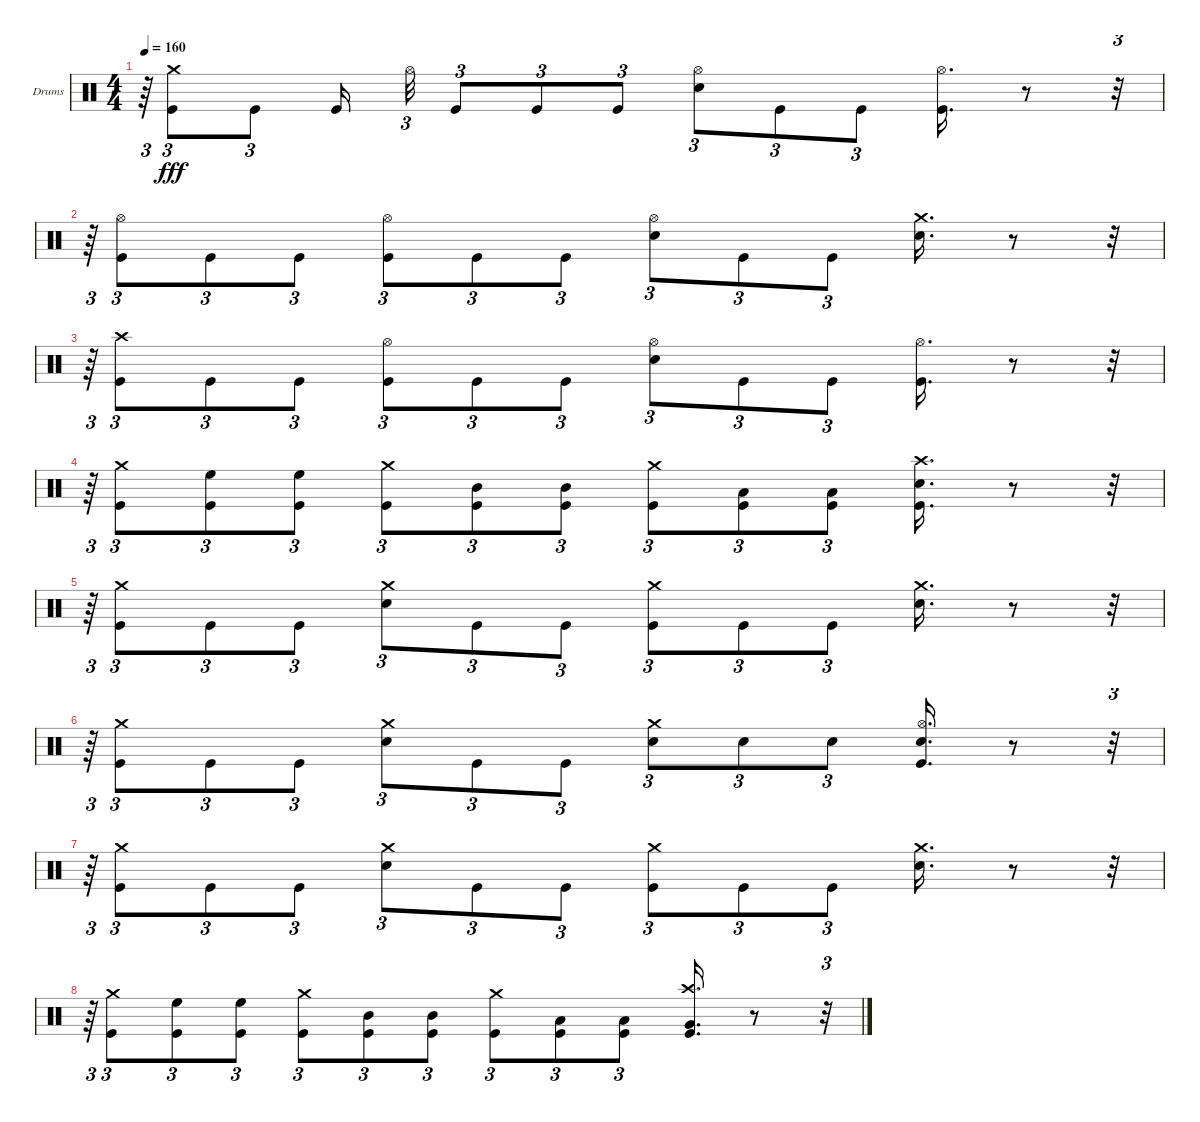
\bracketExtendMode groupsimilarinstruments
\firstSystemTrackNameOrientation horizontal
\otherSystemsTrackNameOrientation horizontal
\track ("Drums" "Drums") {instrument percussion}
\staff {score}
\articulation defaults
\ts (4 4)
\tempo 160
\clef neutral
\ks c
r.64{tu (3 2) dy fff} ("Crash medium (hit)" "Kick (hit)").8{tu (3 2)} "Kick (hit)".8{tu (3 2)} "Kick (hit)".16 "Hi-Hat (open)".32{tu (3 2)} "Kick (hit)".8{tu (3 2)} "Kick (hit)".8{tu (3 2)} "Kick (hit)".8{tu (3 2)} ("Hi-Hat (open)" "Snare (hit) 2").8{tu (3 2)} "Kick (hit)".8{tu (3 2)} "Kick (hit)".8{tu (3 2)} ("Kick (hit)" "Hi-Hat (open)").16{d} r.8 r.32{tu (3 2)} |
r.64{tu (3 2)} ("Hi-Hat (open)" "Kick (hit)").8{tu (3 2)} "Kick (hit)".8{tu (3 2)} "Kick (hit)".8{tu (3 2)} ("Hi-Hat (open)" "Kick (hit)").8{tu (3 2)} "Kick (hit)".8{tu (3 2)} "Kick (hit)".8{tu (3 2)} ("Hi-Hat (open)" "Snare (hit) 2").8{tu (3 2)} "Kick (hit)".8{tu (3 2)} "Kick (hit)".8{tu (3 2)} ("Crash medium (hit)" "Snare (hit) 2").16{d} r.8 r.32{tu (3 2)} |
r.64{tu (3 2)} ("Crash high (hit)" "Kick (hit)").8{tu (3 2)} "Kick (hit)".8{tu (3 2)} "Kick (hit)".8{tu (3 2)} ("Hi-Hat (open)" "Kick (hit)").8{tu (3 2)} "Kick (hit)".8{tu (3 2)} "Kick (hit)".8{tu (3 2)} ("Hi-Hat (open)" "Snare (hit) 2").8{tu (3 2)} "Kick (hit)".8{tu (3 2)} "Kick (hit)".8{tu (3 2)} ("Kick (hit)" "Hi-Hat (open)").16{d} r.8 r.32{tu (3 2)} |
r.64{tu (3 2)} ("Crash medium (hit)" "Kick (hit)").8{tu (3 2)} ("High Floor Tom (hit)" "Kick (hit)").8{tu (3 2)} ("High Floor Tom (hit)" "Kick (hit)").8{tu (3 2)} ("Crash medium (hit)" "Kick (hit)").8{tu (3 2)} ("Mid Tom (hit)" "Kick (hit)").8{tu (3 2)} ("Kick (hit)" "Mid Tom (hit)").8{tu (3 2)} ("Kick (hit)" "Crash medium (hit)").8{tu (3 2)} ("Kick (hit)" "Low Tom (hit)").8{tu (3 2)} ("Kick (hit)" "Low Tom (hit)").8{tu (3 2)} ("Snare (hit) 2" "Kick (hit)" "Crash high (hit)").16{d} r.8 r.32{tu (3 2)} |
r.64{tu (3 2)} ("Crash medium (hit)" "Kick (hit)").8{tu (3 2)} "Kick (hit)".8{tu (3 2)} "Kick (hit)".8{tu (3 2)} ("Crash medium (hit)" "Snare (hit) 2").8{tu (3 2)} "Kick (hit)".8{tu (3 2)} "Kick (hit)".8{tu (3 2)} ("Crash medium (hit)" "Kick (hit)").8{tu (3 2)} "Kick (hit)".8{tu (3 2)} "Kick (hit)".8{tu (3 2)} ("Crash medium (hit)" "Snare (hit) 2").16{d} r.8 r.32{tu (3 2)} |
r.64{tu (3 2)} ("Crash medium (hit)" "Kick (hit)").8{tu (3 2)} "Kick (hit)".8{tu (3 2)} "Kick (hit)".8{tu (3 2)} ("Crash medium (hit)" "Snare (hit) 2").8{tu (3 2)} "Kick (hit)".8{tu (3 2)} "Kick (hit)".8{tu (3 2)} ("Crash medium (hit)" "Snare (hit) 2").8{tu (3 2)} "Snare (hit) 2".8{tu (3 2)} "Snare (hit) 2".8{tu (3 2)} ("Kick (hit)" "Hi-Hat (open)" "Snare (hit) 2").16{d} r.8 r.32{tu (3 2)} |
r.64{tu (3 2)} ("Crash medium (hit)" "Kick (hit)").8{tu (3 2)} "Kick (hit)".8{tu (3 2)} "Kick (hit)".8{tu (3 2)} ("Crash medium (hit)" "Snare (hit) 2").8{tu (3 2)} "Kick (hit)".8{tu (3 2)} "Kick (hit)".8{tu (3 2)} ("Kick (hit)" "Crash medium (hit)").8{tu (3 2)} "Kick (hit)".8{tu (3 2)} "Kick (hit)".8{tu (3 2)} ("Crash medium (hit)" "Snare (hit) 2").16{d} r.8 r.32{tu (3 2)} |
r.64{tu (3 2)} ("Crash medium (hit)" "Kick (hit)").8{tu (3 2)} ("High Floor Tom (hit)" "Kick (hit)").8{tu (3 2)} ("High Floor Tom (hit)" "Kick (hit)").8{tu (3 2)} ("Crash medium (hit)" "Kick (hit)").8{tu (3 2)} ("Mid Tom (hit)" "Kick (hit)").8{tu (3 2)} ("Mid Tom (hit)" "Kick (hit)").8{tu (3 2)} ("Crash medium (hit)" "Kick (hit)").8{tu (3 2)} ("Low Tom (hit)" "Kick (hit)").8{tu (3 2)} ("Low Tom (hit)" "Kick (hit)").8{tu (3 2)} ("Very Low Tom (hit)" "Crash high (hit)" "Kick (hit)").16{d} r.8 r.32{tu (3 2)}
